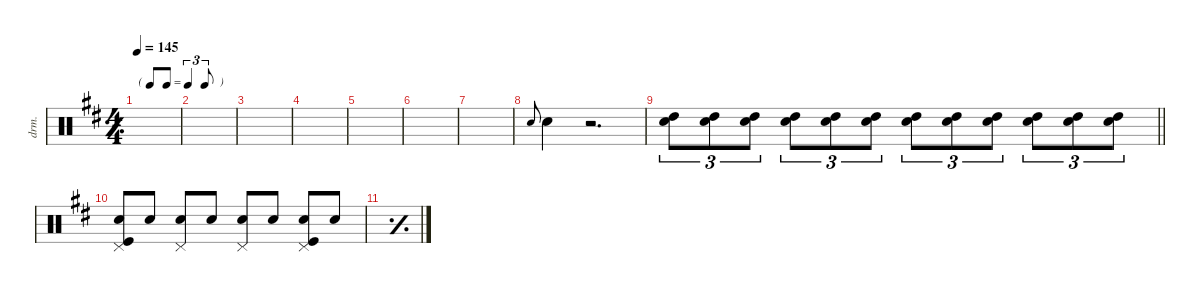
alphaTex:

\defaultSystemsLayout 4
\hideDynamics
\bracketExtendMode nobrackets
\otherSystemsTrackNameOrientation horizontal
\track ("Drumkit" "drm.") {instrument percussion}
\staff {score}
\articulation defaults
\ts (4 4)
\tf triplet8th
\tempo 145
\clef neutral
\simile simple
\ks d
|
|
|
|
|
|
|
\simile none "Snare (hit) 2".8{gr onbeat dy mf} "Snare (hit) 2".4
r.2{d} |
\barLineRight lightlight
("Snare (hit) 2" "High Tom (hit)").8{tu (3 2) dy pp} ("Snare (hit) 2" "High Tom (hit)").8{tu (3 2)} ("Snare (hit) 2" "High Tom (hit)").8{tu (3 2)} ("Snare (hit) 2" "High Tom (hit)").8{tu (3 2) dy p} ("Snare (hit) 2" "High Tom (hit)").8{tu (3 2)} ("Snare (hit) 2" "High Tom (hit)").8{tu (3 2) dy mp} ("Snare (hit) 2" "High Tom (hit)").8{tu (3 2)} ("Snare (hit) 2" "High Tom (hit)").8{tu (3 2) dy mf} ("Snare (hit) 2" "High Tom (hit)").8{tu (3 2) dy f} ("Snare (hit) 2" "High Tom (hit)").8{tu (3 2) dy ff} ("Snare (hit) 2" "High Tom (hit)").8{tu (3 2)} ("Snare (hit) 2" "High Tom (hit)").8{tu (3 2)} |
("Snare (hit) 2" "Pedal Hi-Hat (hit)" "Kick (hit)").8{dy pp} "Snare (hit) 2".8 ("Snare (hit) 2" "Pedal Hi-Hat (hit)").8{dy f} "Snare (hit) 2".8{dy pp} ("Snare (hit) 2" "Pedal Hi-Hat (hit)").8 "Snare (hit) 2".8 ("Snare (hit) 2" "Pedal Hi-Hat (hit)" "Kick (hit)").8{dy f} "Snare (hit) 2".8{dy pp} |
\simile simple
